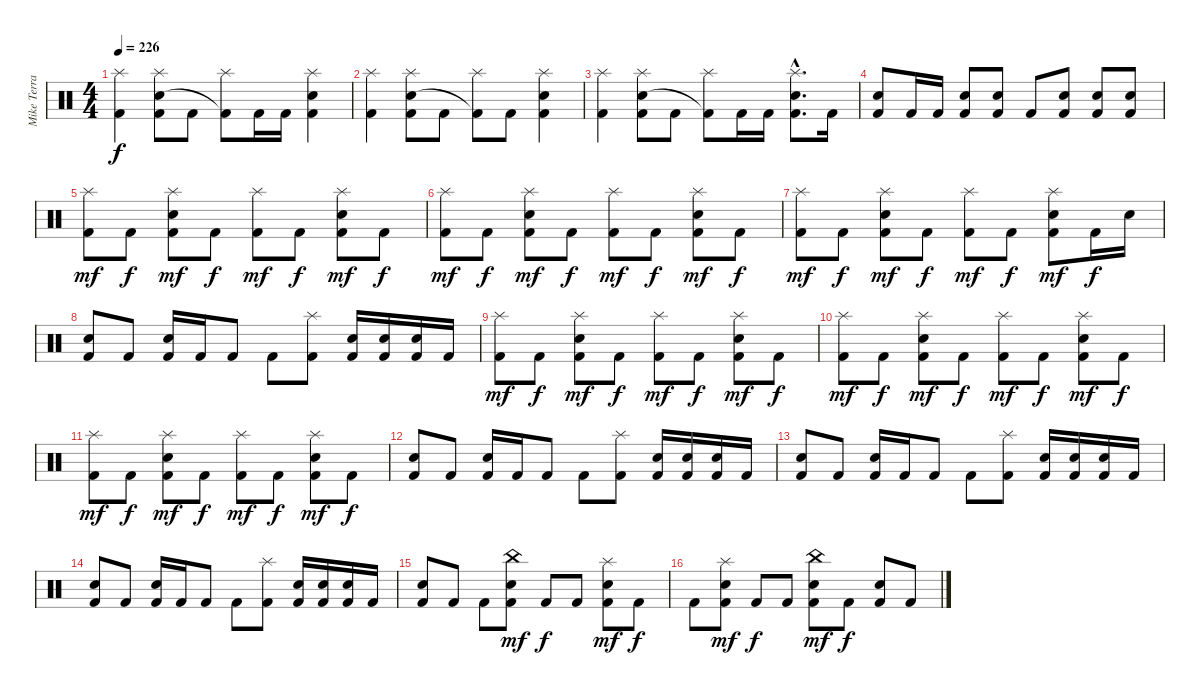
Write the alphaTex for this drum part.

\track ("Mike Terrana" "Mike Terra") {instrument percussion}
\staff {score}
\articulation defaults
\ts (4 4)
\tempo 226
\clef neutral
\ks c
("Splash (hit)" "Kick (hit) 2").4{dy f} ("Splash (hit)" "Snare (hit) 2" "Kick (hit) 2").8 "Kick (hit) 2".8 ("Splash (hit)" "Kick (hit) 2"{t}).8 "Kick (hit) 2".16 "Kick (hit) 2".16 ("Splash (hit)" "Snare (hit) 2" "Kick (hit) 2").4 |
("Splash (hit)" "Kick (hit) 2").4 ("Splash (hit)" "Snare (hit) 2" "Kick (hit) 2").8 "Kick (hit) 2".8 ("Splash (hit)" "Kick (hit) 2"{t}).8 "Kick (hit) 2".8 ("Splash (hit)" "Snare (hit) 2" "Kick (hit) 2").4 |
("Splash (hit)" "Kick (hit) 2").4 ("Splash (hit)" "Snare (hit) 2" "Kick (hit) 2").8 "Kick (hit) 2".8 ("Splash (hit)" "Kick (hit) 2"{t}).8 "Kick (hit) 2".16 "Kick (hit) 2".16 ("Splash (hit)"{hac} "Snare (hit) 2"{hac} "Kick (hit) 2"{hac}).8{d} "Kick (hit) 2".16 |
("Snare (hit) 2" "Kick (hit) 2").8 "Kick (hit) 2".16 "Kick (hit) 2".16 ("Snare (hit) 2" "Kick (hit) 2").8 ("Snare (hit) 2" "Kick (hit) 2").8 "Kick (hit) 2".8 ("Snare (hit) 2" "Kick (hit) 2").8 ("Snare (hit) 2" "Kick (hit) 2").8 ("Snare (hit) 2" "Kick (hit) 2").8 |
("Splash (hit)" "Kick (hit) 2").8{dy mf} "Kick (hit) 2".8{dy f} ("Splash (hit)" "Snare (hit) 2" "Kick (hit) 2").8{dy mf} "Kick (hit) 2".8{dy f} ("Splash (hit)" "Kick (hit) 2").8{dy mf} "Kick (hit) 2".8{dy f} ("Splash (hit)" "Snare (hit) 2" "Kick (hit) 2").8{dy mf} "Kick (hit) 2".8{dy f} |
("Splash (hit)" "Kick (hit) 2").8{dy mf} "Kick (hit) 2".8{dy f} ("Splash (hit)" "Snare (hit) 2" "Kick (hit) 2").8{dy mf} "Kick (hit) 2".8{dy f} ("Splash (hit)" "Kick (hit) 2").8{dy mf} "Kick (hit) 2".8{dy f} ("Splash (hit)" "Snare (hit) 2" "Kick (hit) 2").8{dy mf} "Kick (hit) 2".8{dy f} |
("Splash (hit)" "Kick (hit) 2").8{dy mf} "Kick (hit) 2".8{dy f} ("Splash (hit)" "Snare (hit) 2" "Kick (hit) 2").8{dy mf} "Kick (hit) 2".8{dy f} ("Splash (hit)" "Kick (hit) 2").8{dy mf} "Kick (hit) 2".8{dy f} ("Splash (hit)" "Snare (hit) 2" "Kick (hit) 2").8{dy mf} "Kick (hit) 2".16{dy f} "Snare (hit) 2".16 |
("Snare (hit) 2" "Kick (hit) 2").8 "Kick (hit) 2".8 ("Snare (hit) 2" "Kick (hit) 2").16 "Kick (hit) 2".16 "Kick (hit) 2".8 "Kick (hit) 2".8 ("Splash (hit)" "Kick (hit) 2").8 ("Snare (hit) 2" "Kick (hit) 2").16 ("Snare (hit) 2" "Kick (hit) 2").16 ("Snare (hit) 2" "Kick (hit) 2").16 "Kick (hit) 2".16 |
("Splash (hit)" "Kick (hit) 2").8{dy mf} "Kick (hit) 2".8{dy f} ("Splash (hit)" "Snare (hit) 2" "Kick (hit) 2").8{dy mf} "Kick (hit) 2".8{dy f} ("Splash (hit)" "Kick (hit) 2").8{dy mf} "Kick (hit) 2".8{dy f} ("Splash (hit)" "Snare (hit) 2" "Kick (hit) 2").8{dy mf} "Kick (hit) 2".8{dy f} |
("Splash (hit)" "Kick (hit) 2").8{dy mf} "Kick (hit) 2".8{dy f} ("Splash (hit)" "Snare (hit) 2" "Kick (hit) 2").8{dy mf} "Kick (hit) 2".8{dy f} ("Splash (hit)" "Kick (hit) 2").8{dy mf} "Kick (hit) 2".8{dy f} ("Splash (hit)" "Snare (hit) 2" "Kick (hit) 2").8{dy mf} "Kick (hit) 2".8{dy f} |
("Splash (hit)" "Kick (hit) 2").8{dy mf} "Kick (hit) 2".8{dy f} ("Splash (hit)" "Snare (hit) 2" "Kick (hit) 2").8{dy mf} "Kick (hit) 2".8{dy f} ("Splash (hit)" "Kick (hit) 2").8{dy mf} "Kick (hit) 2".8{dy f} ("Splash (hit)" "Snare (hit) 2" "Kick (hit) 2").8{dy mf} "Kick (hit) 2".8{dy f} |
("Snare (hit) 2" "Kick (hit) 2").8 "Kick (hit) 2".8 ("Snare (hit) 2" "Kick (hit) 2").16 "Kick (hit) 2".16 "Kick (hit) 2".8 "Kick (hit) 2".8 ("Splash (hit)" "Kick (hit) 2").8 ("Snare (hit) 2" "Kick (hit) 2").16 ("Snare (hit) 2" "Kick (hit) 2").16 ("Snare (hit) 2" "Kick (hit) 2").16 "Kick (hit) 2".16 |
("Snare (hit) 2" "Kick (hit) 2").8 "Kick (hit) 2".8 ("Snare (hit) 2" "Kick (hit) 2").16 "Kick (hit) 2".16 "Kick (hit) 2".8 "Kick (hit) 2".8 ("Splash (hit)" "Kick (hit) 2").8 ("Snare (hit) 2" "Kick (hit) 2").16 ("Snare (hit) 2" "Kick (hit) 2").16 ("Snare (hit) 2" "Kick (hit) 2").16 "Kick (hit) 2".16 |
("Snare (hit) 2" "Kick (hit) 2").8 "Kick (hit) 2".8 ("Snare (hit) 2" "Kick (hit) 2").16 "Kick (hit) 2".16 "Kick (hit) 2".8 "Kick (hit) 2".8 ("Splash (hit)" "Kick (hit) 2").8 ("Snare (hit) 2" "Kick (hit) 2").16 ("Snare (hit) 2" "Kick (hit) 2").16 ("Snare (hit) 2" "Kick (hit) 2").16 "Kick (hit) 2".16 |
("Snare (hit) 2" "Kick (hit) 2").8 "Kick (hit) 2".8 "Kick (hit) 2".8 ("China (hit)" "Snare (hit) 2" "Kick (hit) 2").8{dy mf} "Kick (hit) 2".8{dy f} "Kick (hit) 2".8 ("Splash (hit)" "Snare (hit) 2" "Kick (hit) 2").8{dy mf} "Kick (hit) 2".8{dy f} |
"Kick (hit) 2".8 ("Splash (hit)" "Snare (hit) 2" "Kick (hit) 2").8{dy mf} "Kick (hit) 2".8{dy f} "Kick (hit) 2".8 ("China (hit)" "Snare (hit) 2" "Kick (hit) 2").8{dy mf} "Kick (hit) 2".8{dy f} ("Snare (hit) 2" "Kick (hit) 2").8 "Kick (hit) 2".8
